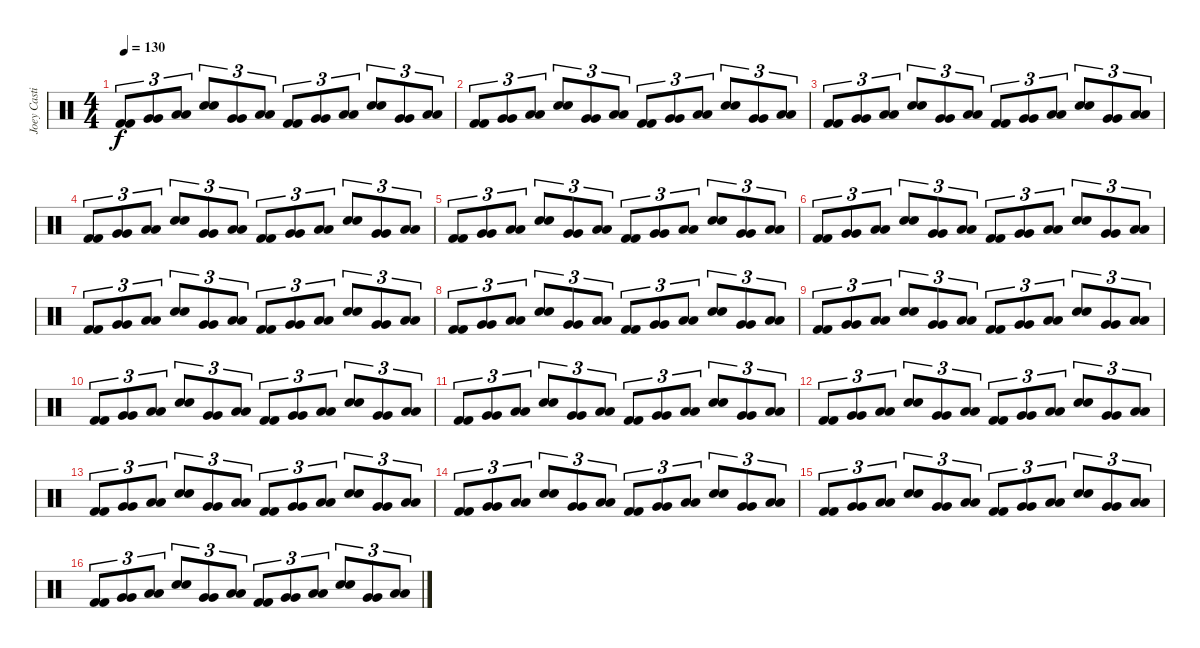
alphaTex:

\track ("Joey Castillo" "Joey Casti") {instrument percussion}
\staff {score}
\articulation defaults
\ts (4 4)
\tempo 130
\clef neutral
\ks c
("Kick (hit) 2" "Kick (hit) 2").8{tu (3 2) dy f} ("Very Low Tom (hit)" "Very Low Tom (hit)").8{tu (3 2)} ("Low Floor Tom (hit)" "Low Floor Tom (hit)").8{tu (3 2)} ("Electric Snare (hit)" "Electric Snare (hit)").8{tu (3 2)} ("Very Low Tom (hit)" "Very Low Tom (hit)").8{tu (3 2)} ("Low Floor Tom (hit)" "Low Floor Tom (hit)").8{tu (3 2)} ("Kick (hit) 2" "Kick (hit) 2").8{tu (3 2)} ("Very Low Tom (hit)" "Very Low Tom (hit)").8{tu (3 2)} ("Low Floor Tom (hit)" "Low Floor Tom (hit)").8{tu (3 2)} ("Electric Snare (hit)" "Electric Snare (hit)").8{tu (3 2)} ("Very Low Tom (hit)" "Very Low Tom (hit)").8{tu (3 2)} ("Low Floor Tom (hit)" "Low Floor Tom (hit)").8{tu (3 2)} |
("Kick (hit) 2" "Kick (hit) 2").8{tu (3 2)} ("Very Low Tom (hit)" "Very Low Tom (hit)").8{tu (3 2)} ("Low Floor Tom (hit)" "Low Floor Tom (hit)").8{tu (3 2)} ("Electric Snare (hit)" "Electric Snare (hit)").8{tu (3 2)} ("Very Low Tom (hit)" "Very Low Tom (hit)").8{tu (3 2)} ("Low Floor Tom (hit)" "Low Floor Tom (hit)").8{tu (3 2)} ("Kick (hit) 2" "Kick (hit) 2").8{tu (3 2)} ("Very Low Tom (hit)" "Very Low Tom (hit)").8{tu (3 2)} ("Low Floor Tom (hit)" "Low Floor Tom (hit)").8{tu (3 2)} ("Electric Snare (hit)" "Electric Snare (hit)").8{tu (3 2)} ("Very Low Tom (hit)" "Very Low Tom (hit)").8{tu (3 2)} ("Low Floor Tom (hit)" "Low Floor Tom (hit)").8{tu (3 2)} |
("Kick (hit) 2" "Kick (hit) 2").8{tu (3 2)} ("Very Low Tom (hit)" "Very Low Tom (hit)").8{tu (3 2)} ("Low Floor Tom (hit)" "Low Floor Tom (hit)").8{tu (3 2)} ("Electric Snare (hit)" "Electric Snare (hit)").8{tu (3 2)} ("Very Low Tom (hit)" "Very Low Tom (hit)").8{tu (3 2)} ("Low Floor Tom (hit)" "Low Floor Tom (hit)").8{tu (3 2)} ("Kick (hit) 2" "Kick (hit) 2").8{tu (3 2)} ("Very Low Tom (hit)" "Very Low Tom (hit)").8{tu (3 2)} ("Low Floor Tom (hit)" "Low Floor Tom (hit)").8{tu (3 2)} ("Electric Snare (hit)" "Electric Snare (hit)").8{tu (3 2)} ("Very Low Tom (hit)" "Very Low Tom (hit)").8{tu (3 2)} ("Low Floor Tom (hit)" "Low Floor Tom (hit)").8{tu (3 2)} |
("Kick (hit) 2" "Kick (hit) 2").8{tu (3 2)} ("Very Low Tom (hit)" "Very Low Tom (hit)").8{tu (3 2)} ("Low Floor Tom (hit)" "Low Floor Tom (hit)").8{tu (3 2)} ("Electric Snare (hit)" "Electric Snare (hit)").8{tu (3 2)} ("Very Low Tom (hit)" "Very Low Tom (hit)").8{tu (3 2)} ("Low Floor Tom (hit)" "Low Floor Tom (hit)").8{tu (3 2)} ("Kick (hit) 2" "Kick (hit) 2").8{tu (3 2)} ("Very Low Tom (hit)" "Very Low Tom (hit)").8{tu (3 2)} ("Low Floor Tom (hit)" "Low Floor Tom (hit)").8{tu (3 2)} ("Electric Snare (hit)" "Electric Snare (hit)").8{tu (3 2)} ("Very Low Tom (hit)" "Very Low Tom (hit)").8{tu (3 2)} ("Low Floor Tom (hit)" "Low Floor Tom (hit)").8{tu (3 2)} |
("Kick (hit) 2" "Kick (hit) 2").8{tu (3 2)} ("Very Low Tom (hit)" "Very Low Tom (hit)").8{tu (3 2)} ("Low Floor Tom (hit)" "Low Floor Tom (hit)").8{tu (3 2)} ("Electric Snare (hit)" "Electric Snare (hit)").8{tu (3 2)} ("Very Low Tom (hit)" "Very Low Tom (hit)").8{tu (3 2)} ("Low Floor Tom (hit)" "Low Floor Tom (hit)").8{tu (3 2)} ("Kick (hit) 2" "Kick (hit) 2").8{tu (3 2)} ("Very Low Tom (hit)" "Very Low Tom (hit)").8{tu (3 2)} ("Low Floor Tom (hit)" "Low Floor Tom (hit)").8{tu (3 2)} ("Electric Snare (hit)" "Electric Snare (hit)").8{tu (3 2)} ("Very Low Tom (hit)" "Very Low Tom (hit)").8{tu (3 2)} ("Low Floor Tom (hit)" "Low Floor Tom (hit)").8{tu (3 2)} |
("Kick (hit) 2" "Kick (hit) 2").8{tu (3 2)} ("Very Low Tom (hit)" "Very Low Tom (hit)").8{tu (3 2)} ("Low Floor Tom (hit)" "Low Floor Tom (hit)").8{tu (3 2)} ("Electric Snare (hit)" "Electric Snare (hit)").8{tu (3 2)} ("Very Low Tom (hit)" "Very Low Tom (hit)").8{tu (3 2)} ("Low Floor Tom (hit)" "Low Floor Tom (hit)").8{tu (3 2)} ("Kick (hit) 2" "Kick (hit) 2").8{tu (3 2)} ("Very Low Tom (hit)" "Very Low Tom (hit)").8{tu (3 2)} ("Low Floor Tom (hit)" "Low Floor Tom (hit)").8{tu (3 2)} ("Electric Snare (hit)" "Electric Snare (hit)").8{tu (3 2)} ("Very Low Tom (hit)" "Very Low Tom (hit)").8{tu (3 2)} ("Low Floor Tom (hit)" "Low Floor Tom (hit)").8{tu (3 2)} |
("Kick (hit) 2" "Kick (hit) 2").8{tu (3 2)} ("Very Low Tom (hit)" "Very Low Tom (hit)").8{tu (3 2)} ("Low Floor Tom (hit)" "Low Floor Tom (hit)").8{tu (3 2)} ("Electric Snare (hit)" "Electric Snare (hit)").8{tu (3 2)} ("Very Low Tom (hit)" "Very Low Tom (hit)").8{tu (3 2)} ("Low Floor Tom (hit)" "Low Floor Tom (hit)").8{tu (3 2)} ("Kick (hit) 2" "Kick (hit) 2").8{tu (3 2)} ("Very Low Tom (hit)" "Very Low Tom (hit)").8{tu (3 2)} ("Low Floor Tom (hit)" "Low Floor Tom (hit)").8{tu (3 2)} ("Electric Snare (hit)" "Electric Snare (hit)").8{tu (3 2)} ("Very Low Tom (hit)" "Very Low Tom (hit)").8{tu (3 2)} ("Low Floor Tom (hit)" "Low Floor Tom (hit)").8{tu (3 2)} |
("Kick (hit) 2" "Kick (hit) 2").8{tu (3 2)} ("Very Low Tom (hit)" "Very Low Tom (hit)").8{tu (3 2)} ("Low Floor Tom (hit)" "Low Floor Tom (hit)").8{tu (3 2)} ("Electric Snare (hit)" "Electric Snare (hit)").8{tu (3 2)} ("Very Low Tom (hit)" "Very Low Tom (hit)").8{tu (3 2)} ("Low Floor Tom (hit)" "Low Floor Tom (hit)").8{tu (3 2)} ("Kick (hit) 2" "Kick (hit) 2").8{tu (3 2)} ("Very Low Tom (hit)" "Very Low Tom (hit)").8{tu (3 2)} ("Low Floor Tom (hit)" "Low Floor Tom (hit)").8{tu (3 2)} ("Electric Snare (hit)" "Electric Snare (hit)").8{tu (3 2)} ("Very Low Tom (hit)" "Very Low Tom (hit)").8{tu (3 2)} ("Low Floor Tom (hit)" "Low Floor Tom (hit)").8{tu (3 2)} |
("Kick (hit) 2" "Kick (hit) 2").8{tu (3 2)} ("Very Low Tom (hit)" "Very Low Tom (hit)").8{tu (3 2)} ("Low Floor Tom (hit)" "Low Floor Tom (hit)").8{tu (3 2)} ("Electric Snare (hit)" "Electric Snare (hit)").8{tu (3 2)} ("Very Low Tom (hit)" "Very Low Tom (hit)").8{tu (3 2)} ("Low Floor Tom (hit)" "Low Floor Tom (hit)").8{tu (3 2)} ("Kick (hit) 2" "Kick (hit) 2").8{tu (3 2)} ("Very Low Tom (hit)" "Very Low Tom (hit)").8{tu (3 2)} ("Low Floor Tom (hit)" "Low Floor Tom (hit)").8{tu (3 2)} ("Electric Snare (hit)" "Electric Snare (hit)").8{tu (3 2)} ("Very Low Tom (hit)" "Very Low Tom (hit)").8{tu (3 2)} ("Low Floor Tom (hit)" "Low Floor Tom (hit)").8{tu (3 2)} |
("Kick (hit) 2" "Kick (hit) 2").8{tu (3 2)} ("Very Low Tom (hit)" "Very Low Tom (hit)").8{tu (3 2)} ("Low Floor Tom (hit)" "Low Floor Tom (hit)").8{tu (3 2)} ("Electric Snare (hit)" "Electric Snare (hit)").8{tu (3 2)} ("Very Low Tom (hit)" "Very Low Tom (hit)").8{tu (3 2)} ("Low Floor Tom (hit)" "Low Floor Tom (hit)").8{tu (3 2)} ("Kick (hit) 2" "Kick (hit) 2").8{tu (3 2)} ("Very Low Tom (hit)" "Very Low Tom (hit)").8{tu (3 2)} ("Low Floor Tom (hit)" "Low Floor Tom (hit)").8{tu (3 2)} ("Electric Snare (hit)" "Electric Snare (hit)").8{tu (3 2)} ("Very Low Tom (hit)" "Very Low Tom (hit)").8{tu (3 2)} ("Low Floor Tom (hit)" "Low Floor Tom (hit)").8{tu (3 2)} |
("Kick (hit) 2" "Kick (hit) 2").8{tu (3 2)} ("Very Low Tom (hit)" "Very Low Tom (hit)").8{tu (3 2)} ("Low Floor Tom (hit)" "Low Floor Tom (hit)").8{tu (3 2)} ("Electric Snare (hit)" "Electric Snare (hit)").8{tu (3 2)} ("Very Low Tom (hit)" "Very Low Tom (hit)").8{tu (3 2)} ("Low Floor Tom (hit)" "Low Floor Tom (hit)").8{tu (3 2)} ("Kick (hit) 2" "Kick (hit) 2").8{tu (3 2)} ("Very Low Tom (hit)" "Very Low Tom (hit)").8{tu (3 2)} ("Low Floor Tom (hit)" "Low Floor Tom (hit)").8{tu (3 2)} ("Electric Snare (hit)" "Electric Snare (hit)").8{tu (3 2)} ("Very Low Tom (hit)" "Very Low Tom (hit)").8{tu (3 2)} ("Low Floor Tom (hit)" "Low Floor Tom (hit)").8{tu (3 2)} |
("Kick (hit) 2" "Kick (hit) 2").8{tu (3 2)} ("Very Low Tom (hit)" "Very Low Tom (hit)").8{tu (3 2)} ("Low Floor Tom (hit)" "Low Floor Tom (hit)").8{tu (3 2)} ("Electric Snare (hit)" "Electric Snare (hit)").8{tu (3 2)} ("Very Low Tom (hit)" "Very Low Tom (hit)").8{tu (3 2)} ("Low Floor Tom (hit)" "Low Floor Tom (hit)").8{tu (3 2)} ("Kick (hit) 2" "Kick (hit) 2").8{tu (3 2)} ("Very Low Tom (hit)" "Very Low Tom (hit)").8{tu (3 2)} ("Low Floor Tom (hit)" "Low Floor Tom (hit)").8{tu (3 2)} ("Electric Snare (hit)" "Electric Snare (hit)").8{tu (3 2)} ("Very Low Tom (hit)" "Very Low Tom (hit)").8{tu (3 2)} ("Low Floor Tom (hit)" "Low Floor Tom (hit)").8{tu (3 2)} |
("Kick (hit) 2" "Kick (hit) 2").8{tu (3 2)} ("Very Low Tom (hit)" "Very Low Tom (hit)").8{tu (3 2)} ("Low Floor Tom (hit)" "Low Floor Tom (hit)").8{tu (3 2)} ("Electric Snare (hit)" "Electric Snare (hit)").8{tu (3 2)} ("Very Low Tom (hit)" "Very Low Tom (hit)").8{tu (3 2)} ("Low Floor Tom (hit)" "Low Floor Tom (hit)").8{tu (3 2)} ("Kick (hit) 2" "Kick (hit) 2").8{tu (3 2)} ("Very Low Tom (hit)" "Very Low Tom (hit)").8{tu (3 2)} ("Low Floor Tom (hit)" "Low Floor Tom (hit)").8{tu (3 2)} ("Electric Snare (hit)" "Electric Snare (hit)").8{tu (3 2)} ("Very Low Tom (hit)" "Very Low Tom (hit)").8{tu (3 2)} ("Low Floor Tom (hit)" "Low Floor Tom (hit)").8{tu (3 2)} |
("Kick (hit) 2" "Kick (hit) 2").8{tu (3 2)} ("Very Low Tom (hit)" "Very Low Tom (hit)").8{tu (3 2)} ("Low Floor Tom (hit)" "Low Floor Tom (hit)").8{tu (3 2)} ("Electric Snare (hit)" "Electric Snare (hit)").8{tu (3 2)} ("Very Low Tom (hit)" "Very Low Tom (hit)").8{tu (3 2)} ("Low Floor Tom (hit)" "Low Floor Tom (hit)").8{tu (3 2)} ("Kick (hit) 2" "Kick (hit) 2").8{tu (3 2)} ("Very Low Tom (hit)" "Very Low Tom (hit)").8{tu (3 2)} ("Low Floor Tom (hit)" "Low Floor Tom (hit)").8{tu (3 2)} ("Electric Snare (hit)" "Electric Snare (hit)").8{tu (3 2)} ("Very Low Tom (hit)" "Very Low Tom (hit)").8{tu (3 2)} ("Low Floor Tom (hit)" "Low Floor Tom (hit)").8{tu (3 2)} |
("Kick (hit) 2" "Kick (hit) 2").8{tu (3 2)} ("Very Low Tom (hit)" "Very Low Tom (hit)").8{tu (3 2)} ("Low Floor Tom (hit)" "Low Floor Tom (hit)").8{tu (3 2)} ("Electric Snare (hit)" "Electric Snare (hit)").8{tu (3 2)} ("Very Low Tom (hit)" "Very Low Tom (hit)").8{tu (3 2)} ("Low Floor Tom (hit)" "Low Floor Tom (hit)").8{tu (3 2)} ("Kick (hit) 2" "Kick (hit) 2").8{tu (3 2)} ("Very Low Tom (hit)" "Very Low Tom (hit)").8{tu (3 2)} ("Low Floor Tom (hit)" "Low Floor Tom (hit)").8{tu (3 2)} ("Electric Snare (hit)" "Electric Snare (hit)").8{tu (3 2)} ("Very Low Tom (hit)" "Very Low Tom (hit)").8{tu (3 2)} ("Low Floor Tom (hit)" "Low Floor Tom (hit)").8{tu (3 2)} |
("Kick (hit) 2" "Kick (hit) 2").8{tu (3 2)} ("Very Low Tom (hit)" "Very Low Tom (hit)").8{tu (3 2)} ("Low Floor Tom (hit)" "Low Floor Tom (hit)").8{tu (3 2)} ("Electric Snare (hit)" "Electric Snare (hit)").8{tu (3 2)} ("Very Low Tom (hit)" "Very Low Tom (hit)").8{tu (3 2)} ("Low Floor Tom (hit)" "Low Floor Tom (hit)").8{tu (3 2)} ("Kick (hit) 2" "Kick (hit) 2").8{tu (3 2)} ("Very Low Tom (hit)" "Very Low Tom (hit)").8{tu (3 2)} ("Low Floor Tom (hit)" "Low Floor Tom (hit)").8{tu (3 2)} ("Electric Snare (hit)" "Electric Snare (hit)").8{tu (3 2)} ("Very Low Tom (hit)" "Very Low Tom (hit)").8{tu (3 2)} ("Low Floor Tom (hit)" "Low Floor Tom (hit)").8{tu (3 2)}
